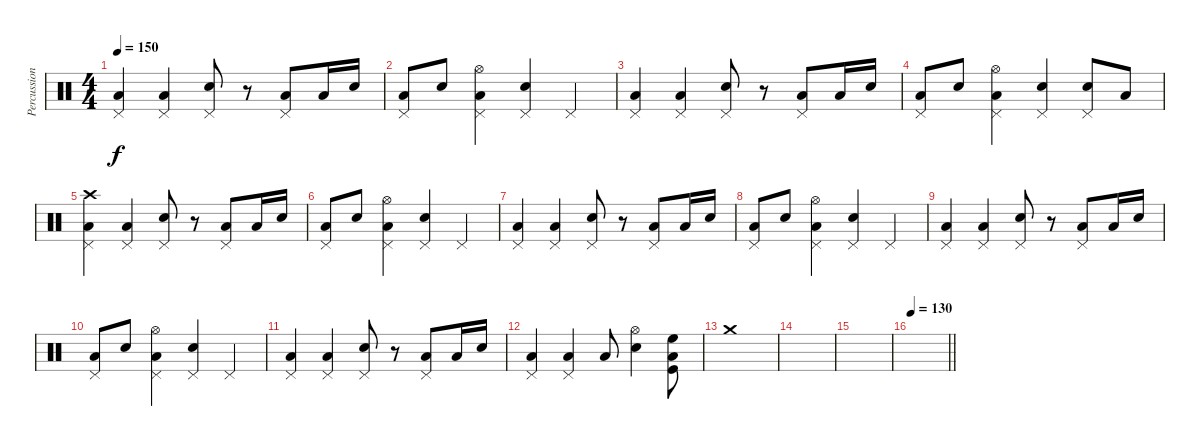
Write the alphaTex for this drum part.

\track ("Percussions" "Percussion") {instrument percussion}
\staff {score}
\articulation defaults
\ts (4 4)
\tempo 150
\clef neutral
\ks c
("Low Floor Tom (hit)" "Pedal Hi-Hat (hit)").4{dy f} ("Low Floor Tom (hit)" "Pedal Hi-Hat (hit)").4 ("Pedal Hi-Hat (hit)" "Electric Snare (hit)").8 r.8 ("Pedal Hi-Hat (hit)" "Low Floor Tom (hit)").8 "Low Floor Tom (hit)".16 "Electric Snare (hit)".16 |
("Low Floor Tom (hit)" "Pedal Hi-Hat (hit)").8 "Electric Snare (hit)".8 ("Low Floor Tom (hit)" "Pedal Hi-Hat (hit)" "Hi-Hat (open)").4 ("Electric Snare (hit)" "Pedal Hi-Hat (hit)").4 "Pedal Hi-Hat (hit)".4 |
("Low Floor Tom (hit)" "Pedal Hi-Hat (hit)").4 ("Low Floor Tom (hit)" "Pedal Hi-Hat (hit)").4 ("Pedal Hi-Hat (hit)" "Electric Snare (hit)").8 r.8 ("Pedal Hi-Hat (hit)" "Low Floor Tom (hit)").8 "Low Floor Tom (hit)".16 "Electric Snare (hit)".16 |
("Low Floor Tom (hit)" "Pedal Hi-Hat (hit)").8 "Electric Snare (hit)".8 ("Low Floor Tom (hit)" "Pedal Hi-Hat (hit)" "Hi-Hat (open)").4 ("Electric Snare (hit)" "Pedal Hi-Hat (hit)").4 ("Pedal Hi-Hat (hit)" "Electric Snare (hit)").8 "Low Floor Tom (hit)".8 |
("Low Floor Tom (hit)" "Pedal Hi-Hat (hit)" "Crash high (hit)").4 ("Low Floor Tom (hit)" "Pedal Hi-Hat (hit)").4 ("Pedal Hi-Hat (hit)" "Electric Snare (hit)").8 r.8 ("Pedal Hi-Hat (hit)" "Low Floor Tom (hit)").8 "Low Floor Tom (hit)".16 "Electric Snare (hit)".16 |
("Low Floor Tom (hit)" "Pedal Hi-Hat (hit)").8 "Electric Snare (hit)".8 ("Low Floor Tom (hit)" "Pedal Hi-Hat (hit)" "Hi-Hat (open)").4 ("Electric Snare (hit)" "Pedal Hi-Hat (hit)").4 "Pedal Hi-Hat (hit)".4 |
("Low Floor Tom (hit)" "Pedal Hi-Hat (hit)").4 ("Low Floor Tom (hit)" "Pedal Hi-Hat (hit)").4 ("Pedal Hi-Hat (hit)" "Electric Snare (hit)").8 r.8 ("Pedal Hi-Hat (hit)" "Low Floor Tom (hit)").8 "Low Floor Tom (hit)".16 "Electric Snare (hit)".16 |
("Low Floor Tom (hit)" "Pedal Hi-Hat (hit)").8 "Electric Snare (hit)".8 ("Low Floor Tom (hit)" "Pedal Hi-Hat (hit)" "Hi-Hat (open)").4 ("Electric Snare (hit)" "Pedal Hi-Hat (hit)").4 "Pedal Hi-Hat (hit)".4 |
("Low Floor Tom (hit)" "Pedal Hi-Hat (hit)").4 ("Low Floor Tom (hit)" "Pedal Hi-Hat (hit)").4 ("Pedal Hi-Hat (hit)" "Electric Snare (hit)").8 r.8 ("Pedal Hi-Hat (hit)" "Low Floor Tom (hit)").8 "Low Floor Tom (hit)".16 "Electric Snare (hit)".16 |
("Low Floor Tom (hit)" "Pedal Hi-Hat (hit)").8 "Electric Snare (hit)".8 ("Low Floor Tom (hit)" "Pedal Hi-Hat (hit)" "Hi-Hat (open)").4 ("Electric Snare (hit)" "Pedal Hi-Hat (hit)").4 "Pedal Hi-Hat (hit)".4 |
("Low Floor Tom (hit)" "Pedal Hi-Hat (hit)").4 ("Low Floor Tom (hit)" "Pedal Hi-Hat (hit)").4 ("Pedal Hi-Hat (hit)" "Electric Snare (hit)").8 r.8 ("Pedal Hi-Hat (hit)" "Low Floor Tom (hit)").8 "Low Floor Tom (hit)".16 "Electric Snare (hit)".16 |
("Low Floor Tom (hit)" "Pedal Hi-Hat (hit)").4 ("Low Floor Tom (hit)" "Pedal Hi-Hat (hit)").4 "Low Floor Tom (hit)".8 ("Electric Snare (hit)" "Hi-Hat (open)").4 ("Kick (hit)" "Low Floor Tom (hit)" "High Floor Tom (hit)").8 |
"Crash medium (hit)".1 |
|
|
\tempo 130
\barLineRight lightlight
